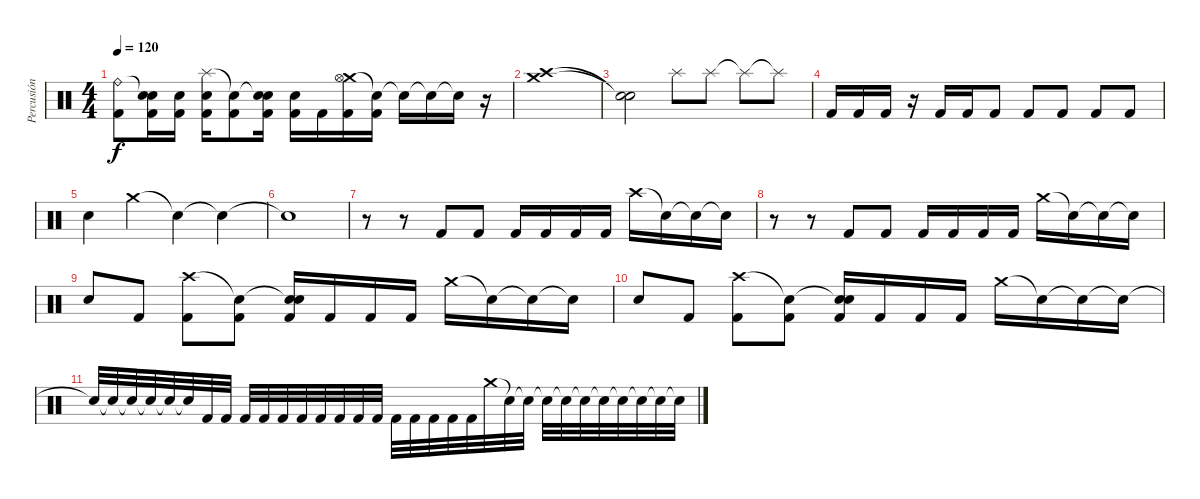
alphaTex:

\track ("Percusión" "Percusión") {instrument percussion}
\staff {score}
\articulation defaults
\ts (4 4)
\tempo 120
\clef neutral
\ks c
("Ride (bell)"{t} "Kick (hit) 2").8{dy f} ("Snare (hit)"{t} "Electric Snare (hit)" "Kick (hit) 2").16 ("Electric Snare (hit)" "Kick (hit) 2").16 ("Splash (hit)" "Electric Snare (hit)" "Kick (hit) 2").16 ("Snare (hit)"{t} "Kick (hit) 2").8 ("Snare (hit)"{t} "Electric Snare (hit)" "Kick (hit) 2").16 ("Electric Snare (hit)" "Kick (hit) 2").16 "Kick (hit) 2".16 ("Crash medium (hit)" "Hi-Hat (open)" "Kick (hit) 2").16 ("Snare (hit)"{t} "Kick (hit) 2").16 "Snare (hit)"{t}.16 "Snare (hit)"{t}.16 "Snare (hit)"{t}.16 r.16 |
("Crash medium (hit)" "Crash high (hit)").1 |
("Snare (hit)"{t} "Snare (hit)"{t}).2 "Splash (hit)".8 "Splash (hit)".8 "Splash (hit)"{t}.8 "Splash (hit)"{t}.8 |
"Kick (hit) 2".16 "Kick (hit) 2".16 "Kick (hit) 2".16 r.16 "Kick (hit) 2".16 "Kick (hit) 2".16 "Kick (hit) 2".8 "Kick (hit) 2".8 "Kick (hit) 2".8 "Kick (hit) 2".8 "Kick (hit) 2".8 |
"Electric Snare (hit)".4 "Crash medium (hit)".4 "Snare (hit)"{t}.4 "Snare (hit)"{t}.4 |
"Snare (hit)"{t}.1 |
r.8 r.8 "Kick (hit) 2".8 "Kick (hit) 2".8 "Kick (hit) 2".16 "Kick (hit) 2".16 "Kick (hit) 2".16 "Kick (hit) 2".16 "Crash high (hit)".16 "Snare (hit)"{t}.16 "Snare (hit)"{t}.16 "Snare (hit)"{t}.16 |
r.8 r.8 "Kick (hit) 2".8 "Kick (hit) 2".8 "Kick (hit) 2".16 "Kick (hit) 2".16 "Kick (hit) 2".16 "Kick (hit) 2".16 "Crash medium (hit)".16 "Snare (hit)"{t}.16 "Snare (hit)"{t}.16 "Snare (hit)"{t}.16 |
"Electric Snare (hit)".8 "Kick (hit) 2".8 ("Crash high (hit)" "Kick (hit) 2").8 ("Snare (hit)"{t} "Kick (hit) 2").8 ("Snare (hit)"{t} "Electric Snare (hit)" "Kick (hit) 2").16 "Kick (hit) 2".16 "Kick (hit) 2".16 "Kick (hit) 2".16 "Crash medium (hit)".16 "Snare (hit)"{t}.16 "Snare (hit)"{t}.16 "Snare (hit)"{t}.16 |
"Electric Snare (hit)".8 "Kick (hit) 2".8 ("Crash high (hit)" "Kick (hit) 2").8 ("Snare (hit)"{t} "Kick (hit) 2").8 ("Snare (hit)"{t} "Electric Snare (hit)" "Kick (hit) 2").16 "Kick (hit) 2".16 "Kick (hit) 2".16 "Kick (hit) 2".16 "Crash medium (hit)".16 "Snare (hit)"{t}.16 "Snare (hit)"{t}.16 "Snare (hit)"{t}.16 |
"Snare (hit)"{t}.32 "Snare (hit)"{t}.32 "Snare (hit)"{t}.32 "Snare (hit)"{t}.32 "Snare (hit)"{t}.32 "Snare (hit)"{t}.32 "Kick (hit) 2".32 "Kick (hit) 2".32 "Kick (hit) 2".32 "Kick (hit) 2".32 "Kick (hit) 2".32 "Kick (hit) 2".32 "Kick (hit) 2".32 "Kick (hit) 2".32 "Kick (hit) 2".32 "Kick (hit) 2".32 "Kick (hit) 2".32 "Kick (hit) 2".32 "Kick (hit) 2".32 "Kick (hit) 2".32 "Kick (hit) 2".32 "Crash medium (hit)".32 "Snare (hit)"{t}.32 "Snare (hit)"{t}.32 "Snare (hit)"{t}.32 "Snare (hit)"{t}.32 "Snare (hit)"{t}.32 "Snare (hit)"{t}.32 "Snare (hit)"{t}.32 "Snare (hit)"{t}.32 "Snare (hit)"{t}.32 "Snare (hit)"{t}.32
